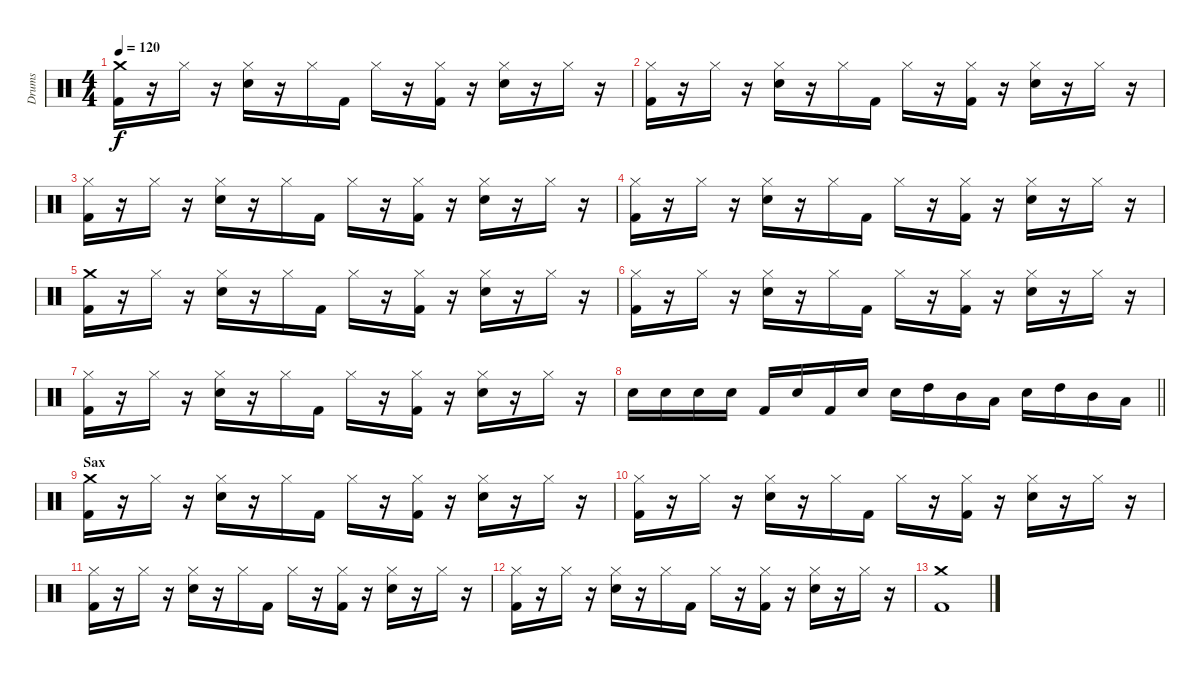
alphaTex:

\track ("Drums" "Drums") {instrument percussion}
\staff {score}
\articulation defaults
\ts (4 4)
\tempo 120
\clef neutral
\ks c
("Crash medium (hit)" "Kick (hit) 2").16{dy f} r.16 "Hi-Hat (closed)".16 r.16 ("Hi-Hat (closed)" "Snare (hit) 2").16 r.16 "Hi-Hat (closed)".16 "Kick (hit) 2".16 "Hi-Hat (closed)".16 r.16 ("Hi-Hat (closed)" "Kick (hit) 2").16 r.16 ("Hi-Hat (closed)" "Snare (hit) 2").16 r.16 "Hi-Hat (closed)".16 r.16 |
("Hi-Hat (closed)" "Kick (hit) 2").16 r.16 "Hi-Hat (closed)".16 r.16 ("Hi-Hat (closed)" "Snare (hit) 2").16 r.16 "Hi-Hat (closed)".16 "Kick (hit) 2".16 "Hi-Hat (closed)".16 r.16 ("Hi-Hat (closed)" "Kick (hit) 2").16 r.16 ("Hi-Hat (closed)" "Snare (hit) 2").16 r.16 "Hi-Hat (closed)".16 r.16 |
("Hi-Hat (closed)" "Kick (hit) 2").16 r.16 "Hi-Hat (closed)".16 r.16 ("Hi-Hat (closed)" "Snare (hit) 2").16 r.16 "Hi-Hat (closed)".16 "Kick (hit) 2".16 "Hi-Hat (closed)".16 r.16 ("Hi-Hat (closed)" "Kick (hit) 2").16 r.16 ("Hi-Hat (closed)" "Snare (hit) 2").16 r.16 "Hi-Hat (closed)".16 r.16 |
("Hi-Hat (closed)" "Kick (hit) 2").16 r.16 "Hi-Hat (closed)".16 r.16 ("Hi-Hat (closed)" "Snare (hit) 2").16 r.16 "Hi-Hat (closed)".16 "Kick (hit) 2".16 "Hi-Hat (closed)".16 r.16 ("Hi-Hat (closed)" "Kick (hit) 2").16 r.16 ("Hi-Hat (closed)" "Snare (hit) 2").16 r.16 "Hi-Hat (closed)".16 r.16 |
("Crash medium (hit)" "Kick (hit) 2").16 r.16 "Hi-Hat (closed)".16 r.16 ("Hi-Hat (closed)" "Snare (hit) 2").16 r.16 "Hi-Hat (closed)".16 "Kick (hit) 2".16 "Hi-Hat (closed)".16 r.16 ("Hi-Hat (closed)" "Kick (hit) 2").16 r.16 ("Hi-Hat (closed)" "Snare (hit) 2").16 r.16 "Hi-Hat (closed)".16 r.16 |
("Hi-Hat (closed)" "Kick (hit) 2").16 r.16 "Hi-Hat (closed)".16 r.16 ("Hi-Hat (closed)" "Snare (hit) 2").16 r.16 "Hi-Hat (closed)".16 "Kick (hit) 2".16 "Hi-Hat (closed)".16 r.16 ("Hi-Hat (closed)" "Kick (hit) 2").16 r.16 ("Hi-Hat (closed)" "Snare (hit) 2").16 r.16 "Hi-Hat (closed)".16 r.16 |
("Hi-Hat (closed)" "Kick (hit) 2").16 r.16 "Hi-Hat (closed)".16 r.16 ("Hi-Hat (closed)" "Snare (hit) 2").16 r.16 "Hi-Hat (closed)".16 "Kick (hit) 2".16 "Hi-Hat (closed)".16 r.16 ("Hi-Hat (closed)" "Kick (hit) 2").16 r.16 ("Hi-Hat (closed)" "Snare (hit) 2").16 r.16 "Hi-Hat (closed)".16 r.16 |
\barLineRight lightlight "Snare (hit) 2".16 "Snare (hit) 2".16 "Snare (hit) 2".16 "Snare (hit) 2".16 "Kick (hit) 2".16 "Snare (hit)".16 "Kick (hit) 2".16 "Snare (hit) 2".16 "Snare (hit) 2".16 "High Tom (hit)".16 "Mid Tom (hit)".16 "Low Tom (hit)".16 "Snare (hit) 2".16 "High Tom (hit)".16 "Mid Tom (hit)".16 "Low Tom (hit)".16
|
\section ("" "Sax")
("Crash medium (hit)" "Kick (hit) 2").16 r.16 "Hi-Hat (closed)".16 r.16 ("Hi-Hat (closed)" "Snare (hit) 2").16 r.16 "Hi-Hat (closed)".16 "Kick (hit) 2".16 "Hi-Hat (closed)".16 r.16 ("Hi-Hat (closed)" "Kick (hit) 2").16 r.16 ("Hi-Hat (closed)" "Snare (hit) 2").16 r.16 "Hi-Hat (closed)".16 r.16 |
("Hi-Hat (closed)" "Kick (hit) 2").16 r.16 "Hi-Hat (closed)".16 r.16 ("Hi-Hat (closed)" "Snare (hit) 2").16 r.16 "Hi-Hat (closed)".16 "Kick (hit) 2".16 "Hi-Hat (closed)".16 r.16 ("Hi-Hat (closed)" "Kick (hit) 2").16 r.16 ("Hi-Hat (closed)" "Snare (hit) 2").16 r.16 "Hi-Hat (closed)".16 r.16 |
("Hi-Hat (closed)" "Kick (hit) 2").16 r.16 "Hi-Hat (closed)".16 r.16 ("Hi-Hat (closed)" "Snare (hit) 2").16 r.16 "Hi-Hat (closed)".16 "Kick (hit) 2".16 "Hi-Hat (closed)".16 r.16 ("Hi-Hat (closed)" "Kick (hit) 2").16 r.16 ("Hi-Hat (closed)" "Snare (hit) 2").16 r.16 "Hi-Hat (closed)".16 r.16 |
("Hi-Hat (closed)" "Kick (hit) 2").16 r.16 "Hi-Hat (closed)".16 r.16 ("Hi-Hat (closed)" "Snare (hit) 2").16 r.16 "Hi-Hat (closed)".16 "Kick (hit) 2".16 "Hi-Hat (closed)".16 r.16 ("Hi-Hat (closed)" "Kick (hit) 2").16 r.16 ("Hi-Hat (closed)" "Snare (hit) 2").16 r.16 "Hi-Hat (closed)".16 r.16 |
("Crash medium (hit)" "Kick (hit) 2").1
